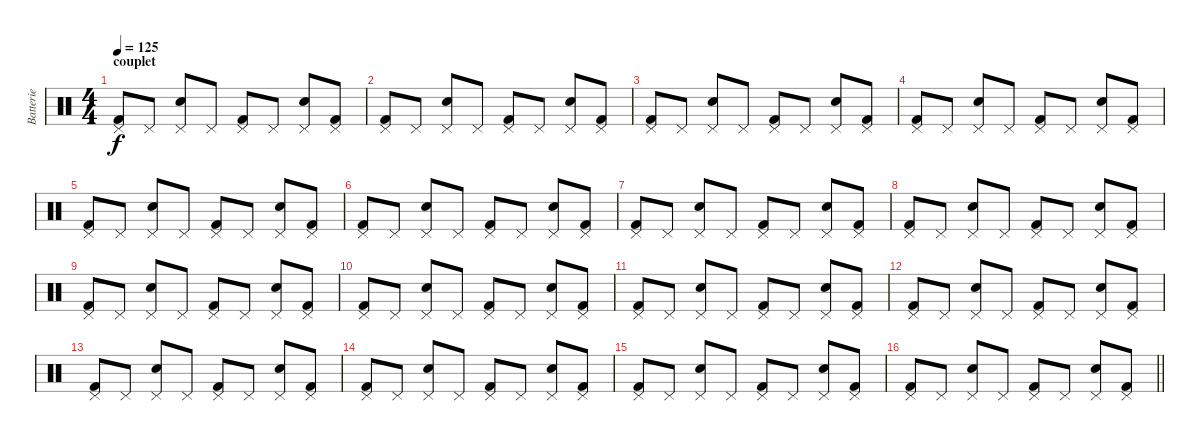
\track ("Batterie" "Batterie") {instrument percussion}
\staff {score}
\articulation defaults
\ts (4 4)
\section ("" "couplet")
\tempo 125
\clef neutral
\ks c
("Pedal Hi-Hat (hit)" "Kick (hit) 2").8{dy f} "Pedal Hi-Hat (hit)".8 ("Pedal Hi-Hat (hit)" "Electric Snare (hit)").8 "Pedal Hi-Hat (hit)".8 ("Pedal Hi-Hat (hit)" "Kick (hit) 2").8 "Pedal Hi-Hat (hit)".8 ("Pedal Hi-Hat (hit)" "Electric Snare (hit)").8 ("Pedal Hi-Hat (hit)" "Kick (hit) 2").8 |
("Pedal Hi-Hat (hit)" "Kick (hit) 2").8 "Pedal Hi-Hat (hit)".8 ("Pedal Hi-Hat (hit)" "Electric Snare (hit)").8 "Pedal Hi-Hat (hit)".8 ("Pedal Hi-Hat (hit)" "Kick (hit) 2").8 "Pedal Hi-Hat (hit)".8 ("Pedal Hi-Hat (hit)" "Electric Snare (hit)").8 ("Pedal Hi-Hat (hit)" "Kick (hit) 2").8 |
("Pedal Hi-Hat (hit)" "Kick (hit) 2").8 "Pedal Hi-Hat (hit)".8 ("Pedal Hi-Hat (hit)" "Electric Snare (hit)").8 "Pedal Hi-Hat (hit)".8 ("Pedal Hi-Hat (hit)" "Kick (hit) 2").8 "Pedal Hi-Hat (hit)".8 ("Pedal Hi-Hat (hit)" "Electric Snare (hit)").8 ("Pedal Hi-Hat (hit)" "Kick (hit) 2").8 |
("Pedal Hi-Hat (hit)" "Kick (hit) 2").8 "Pedal Hi-Hat (hit)".8 ("Pedal Hi-Hat (hit)" "Electric Snare (hit)").8 "Pedal Hi-Hat (hit)".8 ("Pedal Hi-Hat (hit)" "Kick (hit) 2").8 "Pedal Hi-Hat (hit)".8 ("Pedal Hi-Hat (hit)" "Electric Snare (hit)").8 ("Pedal Hi-Hat (hit)" "Kick (hit) 2").8 |
("Pedal Hi-Hat (hit)" "Kick (hit) 2").8 "Pedal Hi-Hat (hit)".8 ("Pedal Hi-Hat (hit)" "Electric Snare (hit)").8 "Pedal Hi-Hat (hit)".8 ("Pedal Hi-Hat (hit)" "Kick (hit) 2").8 "Pedal Hi-Hat (hit)".8 ("Pedal Hi-Hat (hit)" "Electric Snare (hit)").8 ("Pedal Hi-Hat (hit)" "Kick (hit) 2").8 |
("Pedal Hi-Hat (hit)" "Kick (hit) 2").8 "Pedal Hi-Hat (hit)".8 ("Pedal Hi-Hat (hit)" "Electric Snare (hit)").8 "Pedal Hi-Hat (hit)".8 ("Pedal Hi-Hat (hit)" "Kick (hit) 2").8 "Pedal Hi-Hat (hit)".8 ("Pedal Hi-Hat (hit)" "Electric Snare (hit)").8 ("Pedal Hi-Hat (hit)" "Kick (hit) 2").8 |
("Pedal Hi-Hat (hit)" "Kick (hit) 2").8 "Pedal Hi-Hat (hit)".8 ("Pedal Hi-Hat (hit)" "Electric Snare (hit)").8 "Pedal Hi-Hat (hit)".8 ("Pedal Hi-Hat (hit)" "Kick (hit) 2").8 "Pedal Hi-Hat (hit)".8 ("Pedal Hi-Hat (hit)" "Electric Snare (hit)").8 ("Pedal Hi-Hat (hit)" "Kick (hit) 2").8 |
("Pedal Hi-Hat (hit)" "Kick (hit) 2").8 "Pedal Hi-Hat (hit)".8 ("Pedal Hi-Hat (hit)" "Electric Snare (hit)").8 "Pedal Hi-Hat (hit)".8 ("Pedal Hi-Hat (hit)" "Kick (hit) 2").8 "Pedal Hi-Hat (hit)".8 ("Pedal Hi-Hat (hit)" "Electric Snare (hit)").8 ("Pedal Hi-Hat (hit)" "Kick (hit) 2").8 |
("Pedal Hi-Hat (hit)" "Kick (hit) 2").8 "Pedal Hi-Hat (hit)".8 ("Pedal Hi-Hat (hit)" "Electric Snare (hit)").8 "Pedal Hi-Hat (hit)".8 ("Pedal Hi-Hat (hit)" "Kick (hit) 2").8 "Pedal Hi-Hat (hit)".8 ("Pedal Hi-Hat (hit)" "Electric Snare (hit)").8 ("Pedal Hi-Hat (hit)" "Kick (hit) 2").8 |
("Pedal Hi-Hat (hit)" "Kick (hit) 2").8 "Pedal Hi-Hat (hit)".8 ("Pedal Hi-Hat (hit)" "Electric Snare (hit)").8 "Pedal Hi-Hat (hit)".8 ("Pedal Hi-Hat (hit)" "Kick (hit) 2").8 "Pedal Hi-Hat (hit)".8 ("Pedal Hi-Hat (hit)" "Electric Snare (hit)").8 ("Pedal Hi-Hat (hit)" "Kick (hit) 2").8 |
("Pedal Hi-Hat (hit)" "Kick (hit) 2").8 "Pedal Hi-Hat (hit)".8 ("Pedal Hi-Hat (hit)" "Electric Snare (hit)").8 "Pedal Hi-Hat (hit)".8 ("Pedal Hi-Hat (hit)" "Kick (hit) 2").8 "Pedal Hi-Hat (hit)".8 ("Pedal Hi-Hat (hit)" "Electric Snare (hit)").8 ("Pedal Hi-Hat (hit)" "Kick (hit) 2").8 |
("Pedal Hi-Hat (hit)" "Kick (hit) 2").8 "Pedal Hi-Hat (hit)".8 ("Pedal Hi-Hat (hit)" "Electric Snare (hit)").8 "Pedal Hi-Hat (hit)".8 ("Pedal Hi-Hat (hit)" "Kick (hit) 2").8 "Pedal Hi-Hat (hit)".8 ("Pedal Hi-Hat (hit)" "Electric Snare (hit)").8 ("Pedal Hi-Hat (hit)" "Kick (hit) 2").8 |
("Pedal Hi-Hat (hit)" "Kick (hit) 2").8 "Pedal Hi-Hat (hit)".8 ("Pedal Hi-Hat (hit)" "Electric Snare (hit)").8 "Pedal Hi-Hat (hit)".8 ("Pedal Hi-Hat (hit)" "Kick (hit) 2").8 "Pedal Hi-Hat (hit)".8 ("Pedal Hi-Hat (hit)" "Electric Snare (hit)").8 ("Pedal Hi-Hat (hit)" "Kick (hit) 2").8 |
("Pedal Hi-Hat (hit)" "Kick (hit) 2").8 "Pedal Hi-Hat (hit)".8 ("Pedal Hi-Hat (hit)" "Electric Snare (hit)").8 "Pedal Hi-Hat (hit)".8 ("Pedal Hi-Hat (hit)" "Kick (hit) 2").8 "Pedal Hi-Hat (hit)".8 ("Pedal Hi-Hat (hit)" "Electric Snare (hit)").8 ("Pedal Hi-Hat (hit)" "Kick (hit) 2").8 |
("Pedal Hi-Hat (hit)" "Kick (hit) 2").8 "Pedal Hi-Hat (hit)".8 ("Pedal Hi-Hat (hit)" "Electric Snare (hit)").8 "Pedal Hi-Hat (hit)".8 ("Pedal Hi-Hat (hit)" "Kick (hit) 2").8 "Pedal Hi-Hat (hit)".8 ("Pedal Hi-Hat (hit)" "Electric Snare (hit)").8 ("Pedal Hi-Hat (hit)" "Kick (hit) 2").8 |
\barLineRight lightlight
("Pedal Hi-Hat (hit)" "Kick (hit) 2").8 "Pedal Hi-Hat (hit)".8 ("Pedal Hi-Hat (hit)" "Electric Snare (hit)").8 "Pedal Hi-Hat (hit)".8 ("Pedal Hi-Hat (hit)" "Kick (hit) 2").8 "Pedal Hi-Hat (hit)".8 ("Pedal Hi-Hat (hit)" "Electric Snare (hit)").8 ("Pedal Hi-Hat (hit)" "Kick (hit) 2").8
